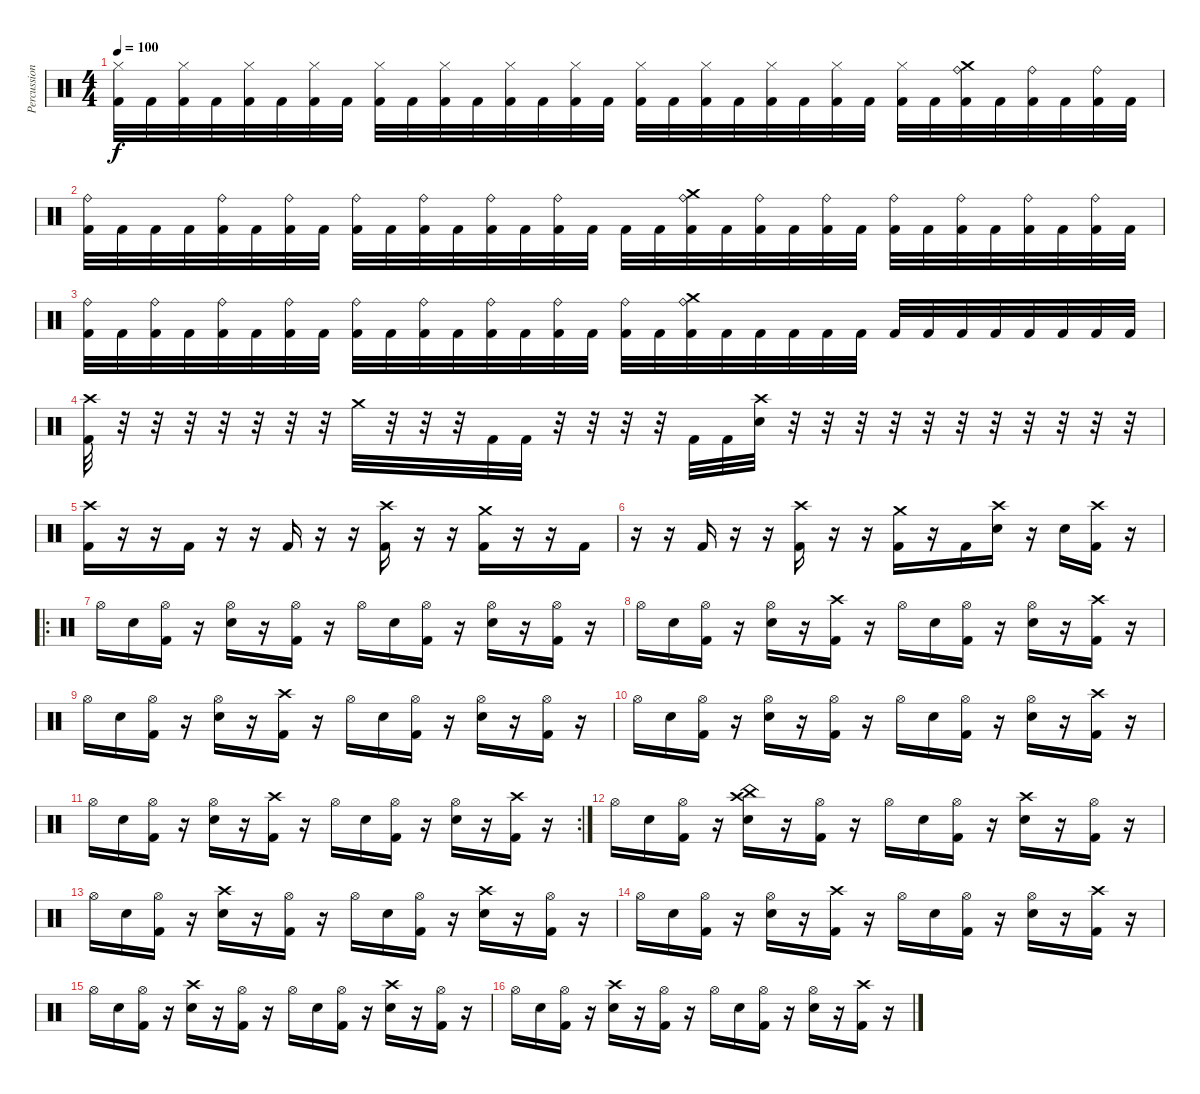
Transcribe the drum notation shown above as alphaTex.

\track ("Percussion" "Percussion") {instrument percussion}
\staff {score}
\articulation defaults
\ts (4 4)
\tempo 100
\clef neutral
\ks c
("Hi-Hat (closed)" "Kick (hit) 2").32{dy f} "Kick (hit) 2".32 ("Hi-Hat (closed)" "Kick (hit) 2").32 "Kick (hit) 2".32 ("Hi-Hat (closed)" "Kick (hit) 2").32 "Kick (hit) 2".32 ("Hi-Hat (closed)" "Kick (hit) 2").32 "Kick (hit) 2".32 ("Hi-Hat (closed)" "Kick (hit) 2").32 "Kick (hit) 2".32 ("Hi-Hat (closed)" "Kick (hit) 2").32 "Kick (hit) 2".32 ("Hi-Hat (closed)" "Kick (hit) 2").32 "Kick (hit) 2".32 ("Hi-Hat (closed)" "Kick (hit) 2").32 "Kick (hit) 2".32 ("Hi-Hat (closed)" "Kick (hit) 2").32 "Kick (hit) 2".32 ("Hi-Hat (closed)" "Kick (hit) 2").32 "Kick (hit) 2".32 ("Hi-Hat (closed)" "Kick (hit) 2").32 "Kick (hit) 2".32 ("Hi-Hat (closed)" "Kick (hit) 2").32 "Kick (hit) 2".32 ("Hi-Hat (closed)" "Kick (hit) 2").32 "Kick (hit) 2".32 ("Crash medium (hit)" "Ride (bell)" "Kick (hit) 2").32 "Kick (hit) 2".32 ("Ride (bell)" "Kick (hit) 2").32 "Kick (hit) 2".32 ("Ride (bell)" "Kick (hit) 2").32 "Kick (hit) 2".32 |
("Ride (bell)" "Kick (hit) 2").32 "Kick (hit) 2".32 "Kick (hit) 2".32 "Kick (hit) 2".32 ("Ride (bell)" "Kick (hit) 2").32 "Kick (hit) 2".32 ("Ride (bell)" "Kick (hit) 2").32 "Kick (hit) 2".32 ("Ride (bell)" "Kick (hit) 2").32 "Kick (hit) 2".32 ("Ride (bell)" "Kick (hit) 2").32 "Kick (hit) 2".32 ("Ride (bell)" "Kick (hit) 2").32 "Kick (hit) 2".32 ("Ride (bell)" "Kick (hit) 2").32 "Kick (hit) 2".32 "Kick (hit) 2".32 "Kick (hit) 2".32 ("Crash medium (hit)" "Ride (bell)" "Kick (hit) 2").32 "Kick (hit) 2".32 ("Ride (bell)" "Kick (hit) 2").32 "Kick (hit) 2".32 ("Ride (bell)" "Kick (hit) 2").32 "Kick (hit) 2".32 ("Ride (bell)" "Kick (hit) 2").32 "Kick (hit) 2".32 ("Ride (bell)" "Kick (hit) 2").32 "Kick (hit) 2".32 ("Ride (bell)" "Kick (hit) 2").32 "Kick (hit) 2".32 ("Ride (bell)" "Kick (hit) 2").32 "Kick (hit) 2".32 |
("Ride (bell)" "Kick (hit) 2").32 "Kick (hit) 2".32 ("Ride (bell)" "Kick (hit) 2").32 "Kick (hit) 2".32 ("Ride (bell)" "Kick (hit) 2").32 "Kick (hit) 2".32 ("Ride (bell)" "Kick (hit) 2").32 "Kick (hit) 2".32 ("Ride (bell)" "Kick (hit) 2").32 "Kick (hit) 2".32 ("Ride (bell)" "Kick (hit) 2").32 "Kick (hit) 2".32 ("Ride (bell)" "Kick (hit) 2").32 "Kick (hit) 2".32 ("Ride (bell)" "Kick (hit) 2").32 "Kick (hit) 2".32 ("Ride (bell)" "Kick (hit) 2").32 "Kick (hit) 2".32 ("Crash medium (hit)" "Ride (bell)" "Kick (hit) 2").32 "Kick (hit) 2".32 "Kick (hit) 2".32 "Kick (hit) 2".32 "Kick (hit) 2".32 "Kick (hit) 2".32 "Kick (hit) 2".32 "Kick (hit) 2".32 "Kick (hit) 2".32 "Kick (hit) 2".32 "Kick (hit) 2".32 "Kick (hit) 2".32 "Kick (hit) 2".32 "Kick (hit) 2".32 |
("Crash high (hit)" "Kick (hit) 2").32 r.32 r.32 r.32 r.32 r.32 r.32 r.32 "Crash medium (hit)".32 r.32 r.32 r.32 "Kick (hit) 2".32 "Kick (hit) 2".32 r.32 r.32 r.32 r.32 "Kick (hit) 2".32 "Kick (hit) 2".32 ("Crash high (hit)" "Snare (hit) 2").32 r.32 r.32 r.32 r.32 r.32 r.32 r.32 r.32 r.32 r.32 r.32 |
("Crash high (hit)" "Kick (hit) 2").16 r.16 r.16 "Kick (hit) 2".16 r.16 r.16 "Kick (hit) 2".16 r.16 r.16 ("Crash high (hit)" "Kick (hit) 2").16 r.16 r.16 ("Crash medium (hit)" "Kick (hit) 2").16 r.16 r.16 "Kick (hit) 2".16 |
r.16 r.16 "Kick (hit) 2".16 r.16 r.16 ("Crash high (hit)" "Kick (hit) 2").16 r.16 r.16 ("Crash medium (hit)" "Kick (hit) 2").16 r.16 "Kick (hit) 2".16 ("Crash high (hit)" "Snare (hit) 2").16 r.16 "Snare (hit) 2".16 ("Crash high (hit)" "Kick (hit) 2").16 r.16 |
\ro "Hi-Hat (open)".16 "Snare (hit) 2".16
("Hi-Hat (open)" "Kick (hit) 2").16 r.16 ("Hi-Hat (open)" "Snare (hit) 2").16 r.16 ("Hi-Hat (open)" "Kick (hit) 2").16 r.16 "Hi-Hat (open)".16 "Snare (hit) 2".16 ("Hi-Hat (open)" "Kick (hit) 2").16 r.16 ("Hi-Hat (open)" "Snare (hit) 2").16 r.16 ("Hi-Hat (open)" "Kick (hit) 2").16 r.16 |
"Hi-Hat (open)".16 "Snare (hit) 2".16 ("Hi-Hat (open)" "Kick (hit) 2").16 r.16 ("Hi-Hat (open)" "Snare (hit) 2").16 r.16 ("Crash high (hit)" "Kick (hit) 2").16 r.16 "Hi-Hat (open)".16 "Snare (hit) 2".16 ("Hi-Hat (open)" "Kick (hit) 2").16 r.16 ("Hi-Hat (open)" "Snare (hit) 2").16 r.16 ("Crash high (hit)" "Kick (hit) 2").16 r.16 |
"Hi-Hat (open)".16 "Snare (hit) 2".16 ("Hi-Hat (open)" "Kick (hit) 2").16 r.16 ("Hi-Hat (open)" "Snare (hit) 2").16 r.16 ("Crash high (hit)" "Kick (hit) 2").16 r.16 "Hi-Hat (open)".16 "Snare (hit) 2".16 ("Hi-Hat (open)" "Kick (hit) 2").16 r.16 ("Hi-Hat (open)" "Snare (hit) 2").16 r.16 ("Hi-Hat (open)" "Kick (hit) 2").16 r.16 |
"Hi-Hat (open)".16 "Snare (hit) 2".16 ("Hi-Hat (open)" "Kick (hit) 2").16 r.16 ("Hi-Hat (open)" "Snare (hit) 2").16 r.16 ("Hi-Hat (open)" "Kick (hit) 2").16 r.16 "Hi-Hat (open)".16 "Snare (hit) 2".16 ("Hi-Hat (open)" "Kick (hit) 2").16 r.16 ("Hi-Hat (open)" "Snare (hit) 2").16 r.16 ("Crash high (hit)" "Kick (hit) 2").16 r.16 |
\rc 2 "Hi-Hat (open)".16 "Snare (hit) 2".16
("Hi-Hat (open)" "Kick (hit) 2").16 r.16 ("Hi-Hat (open)" "Snare (hit) 2").16 r.16 ("Crash high (hit)" "Kick (hit) 2").16 r.16 "Hi-Hat (open)".16 "Snare (hit) 2".16 ("Hi-Hat (open)" "Kick (hit) 2").16 r.16 ("Hi-Hat (open)" "Snare (hit) 2").16 r.16 ("Crash high (hit)" "Kick (hit) 2").16 r.16 |
"Hi-Hat (open)".16 "Snare (hit) 2".16 ("Hi-Hat (open)" "Kick (hit) 2").16 r.16 ("China (hit)" "Crash high (hit)" "Snare (hit) 2").16 r.16 ("Hi-Hat (open)" "Kick (hit) 2").16 r.16 "Hi-Hat (open)".16 "Snare (hit) 2".16 ("Hi-Hat (open)" "Kick (hit) 2").16 r.16 ("Crash high (hit)" "Snare (hit) 2").16 r.16 ("Hi-Hat (open)" "Kick (hit) 2").16 r.16 |
"Hi-Hat (open)".16 "Snare (hit) 2".16 ("Hi-Hat (open)" "Kick (hit) 2").16 r.16 ("Crash high (hit)" "Snare (hit) 2").16 r.16 ("Hi-Hat (open)" "Kick (hit) 2").16 r.16 "Hi-Hat (open)".16 "Snare (hit) 2".16 ("Hi-Hat (open)" "Kick (hit) 2").16 r.16 ("Crash high (hit)" "Snare (hit) 2").16 r.16 ("Hi-Hat (open)" "Kick (hit) 2").16 r.16 |
"Hi-Hat (open)".16 "Snare (hit) 2".16 ("Hi-Hat (open)" "Kick (hit) 2").16 r.16 ("Hi-Hat (open)" "Snare (hit) 2").16 r.16 ("Crash high (hit)" "Kick (hit) 2").16 r.16 "Hi-Hat (open)".16 "Snare (hit) 2".16 ("Hi-Hat (open)" "Kick (hit) 2").16 r.16 ("Hi-Hat (open)" "Snare (hit) 2").16 r.16 ("Crash high (hit)" "Kick (hit) 2").16 r.16 |
"Hi-Hat (open)".16 "Snare (hit) 2".16 ("Hi-Hat (open)" "Kick (hit) 2").16 r.16 ("Crash high (hit)" "Snare (hit) 2").16 r.16 ("Hi-Hat (open)" "Kick (hit) 2").16 r.16 "Hi-Hat (open)".16 "Snare (hit) 2".16 ("Hi-Hat (open)" "Kick (hit) 2").16 r.16 ("Crash high (hit)" "Snare (hit) 2").16 r.16 ("Hi-Hat (open)" "Kick (hit) 2").16 r.16 |
"Hi-Hat (open)".16 "Snare (hit) 2".16 ("Hi-Hat (open)" "Kick (hit) 2").16 r.16 ("Crash high (hit)" "Snare (hit) 2").16 r.16 ("Hi-Hat (open)" "Kick (hit) 2").16 r.16 "Hi-Hat (open)".16 "Snare (hit) 2".16 ("Hi-Hat (open)" "Kick (hit) 2").16 r.16 ("Hi-Hat (open)" "Snare (hit) 2").16 r.16 ("Crash high (hit)" "Kick (hit) 2").16 r.16
